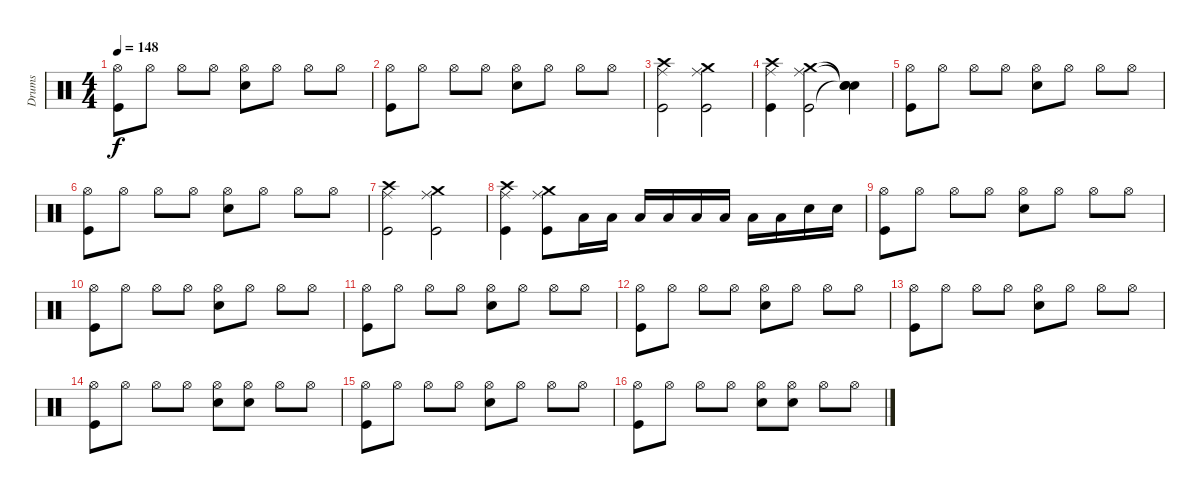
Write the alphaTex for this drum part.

\track ("Drums" "Drums") {instrument percussion}
\staff {score}
\articulation defaults
\ts (4 4)
\tempo 148
\clef neutral
\ks c
("Hi-Hat (open)" "Kick (hit)").8{dy f} "Hi-Hat (open)".8 "Hi-Hat (open)".8 "Hi-Hat (open)".8 ("Snare (hit) 2" "Hi-Hat (open)").8 "Hi-Hat (open)".8 "Hi-Hat (open)".8 "Hi-Hat (open)".8 |
("Hi-Hat (open)" "Kick (hit)").8 "Hi-Hat (open)".8 "Hi-Hat (open)".8 "Hi-Hat (open)".8 ("Snare (hit) 2" "Hi-Hat (open)").8 "Hi-Hat (open)".8 "Hi-Hat (open)".8 "Hi-Hat (open)".8 |
("Ride (middle)" "Crash high (hit)" "Kick (hit)").2 ("Ride (middle)" "Crash medium (hit)" "Kick (hit)").2 |
("Ride (middle)" "Crash high (hit)" "Kick (hit)").4 ("Ride (middle)" "Crash medium (hit)" "Kick (hit)").2 ("Snare (hit)"{t} "Snare (hit)"{t} "Snare (hit)"{t}).4 |
("Hi-Hat (open)" "Kick (hit)").8 "Hi-Hat (open)".8 "Hi-Hat (open)".8 "Hi-Hat (open)".8 ("Snare (hit) 2" "Hi-Hat (open)").8 "Hi-Hat (open)".8 "Hi-Hat (open)".8 "Hi-Hat (open)".8 |
("Hi-Hat (open)" "Kick (hit)").8 "Hi-Hat (open)".8 "Hi-Hat (open)".8 "Hi-Hat (open)".8 ("Snare (hit) 2" "Hi-Hat (open)").8 "Hi-Hat (open)".8 "Hi-Hat (open)".8 "Hi-Hat (open)".8 |
("Ride (middle)" "Crash high (hit)" "Kick (hit)").2 ("Ride (middle)" "Crash medium (hit)" "Kick (hit)").2 |
("Ride (middle)" "Crash high (hit)" "Kick (hit)").4 ("Ride (middle)" "Crash medium (hit)" "Kick (hit)").8 "Low Tom (hit)".16 "Low Tom (hit)".16 "Low Tom (hit)".16 "Low Tom (hit)".16 "Low Tom (hit)".16 "Low Tom (hit)".16 "Low Tom (hit)".16 "Low Tom (hit)".16 "Snare (hit) 2".16 "Snare (hit) 2".16 |
("Hi-Hat (open)" "Kick (hit)").8 "Hi-Hat (open)".8 "Hi-Hat (open)".8 "Hi-Hat (open)".8 ("Snare (hit) 2" "Hi-Hat (open)").8 "Hi-Hat (open)".8 "Hi-Hat (open)".8 "Hi-Hat (open)".8 |
("Kick (hit)" "Hi-Hat (open)").8 "Hi-Hat (open)".8 "Hi-Hat (open)".8 "Hi-Hat (open)".8 ("Snare (hit) 2" "Hi-Hat (open)").8 "Hi-Hat (open)".8 "Hi-Hat (open)".8 "Hi-Hat (open)".8 |
("Kick (hit)" "Hi-Hat (open)").8 "Hi-Hat (open)".8 "Hi-Hat (open)".8 "Hi-Hat (open)".8 ("Snare (hit) 2" "Hi-Hat (open)").8 "Hi-Hat (open)".8 "Hi-Hat (open)".8 "Hi-Hat (open)".8 |
("Kick (hit)" "Hi-Hat (open)").8 "Hi-Hat (open)".8 "Hi-Hat (open)".8 "Hi-Hat (open)".8 ("Snare (hit) 2" "Hi-Hat (open)").8 "Hi-Hat (open)".8 "Hi-Hat (open)".8 "Hi-Hat (open)".8 |
("Hi-Hat (open)" "Kick (hit)").8 "Hi-Hat (open)".8 "Hi-Hat (open)".8 "Hi-Hat (open)".8 ("Snare (hit) 2" "Hi-Hat (open)").8 "Hi-Hat (open)".8 "Hi-Hat (open)".8 "Hi-Hat (open)".8 |
("Kick (hit)" "Hi-Hat (open)").8 "Hi-Hat (open)".8 "Hi-Hat (open)".8 "Hi-Hat (open)".8 ("Snare (hit) 2" "Hi-Hat (open)").8 ("Hi-Hat (open)" "Snare (hit) 2").8 "Hi-Hat (open)".8 "Hi-Hat (open)".8 |
("Kick (hit)" "Hi-Hat (open)").8 "Hi-Hat (open)".8 "Hi-Hat (open)".8 "Hi-Hat (open)".8 ("Snare (hit) 2" "Hi-Hat (open)").8 "Hi-Hat (open)".8 "Hi-Hat (open)".8 "Hi-Hat (open)".8 |
("Kick (hit)" "Hi-Hat (open)").8 "Hi-Hat (open)".8 "Hi-Hat (open)".8 "Hi-Hat (open)".8 ("Snare (hit) 2" "Hi-Hat (open)").8 ("Hi-Hat (open)" "Snare (hit) 2").8 "Hi-Hat (open)".8 "Hi-Hat (open)".8
